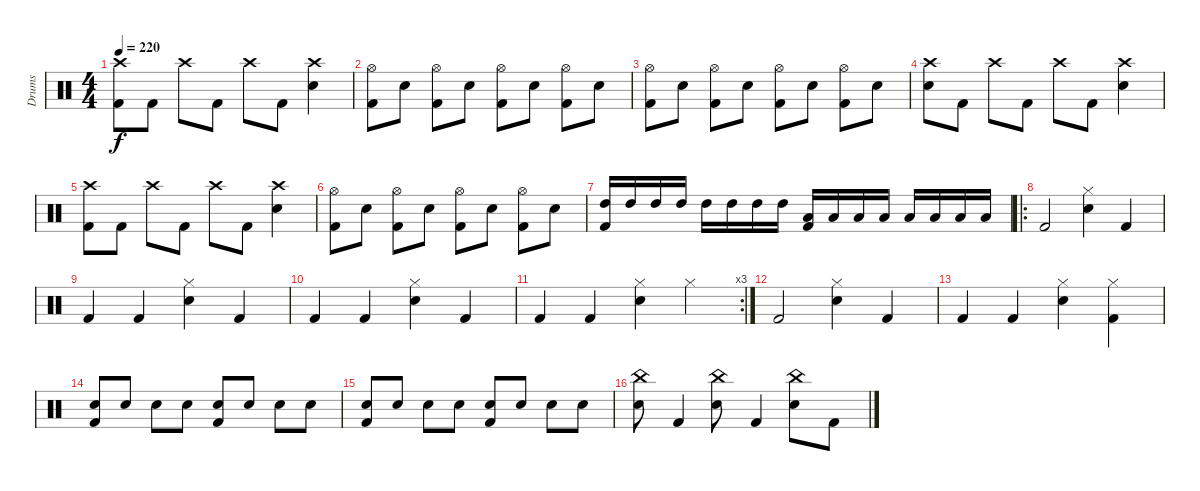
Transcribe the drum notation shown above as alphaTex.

\track ("Drums" "Drums") {instrument percussion}
\staff {score}
\articulation defaults
\ts (4 4)
\tempo 220
\clef neutral
\ks c
("Crash high (hit)" "Kick (hit) 2").8{dy f} "Kick (hit) 2".8 "Crash high (hit)".8 "Kick (hit) 2".8 "Crash high (hit)".8 "Kick (hit) 2".8 ("Crash high (hit)" "Snare (hit) 2").4 |
("Hi-Hat (open)" "Kick (hit) 2").8 "Snare (hit) 2".8 ("Hi-Hat (open)" "Kick (hit) 2").8 "Snare (hit) 2".8 ("Hi-Hat (open)" "Kick (hit) 2").8 "Snare (hit) 2".8 ("Hi-Hat (open)" "Kick (hit) 2").8 "Snare (hit) 2".8 |
("Hi-Hat (open)" "Kick (hit) 2").8 "Snare (hit) 2".8 ("Hi-Hat (open)" "Kick (hit) 2").8 "Snare (hit) 2".8 ("Hi-Hat (open)" "Kick (hit) 2").8 "Snare (hit) 2".8 ("Hi-Hat (open)" "Kick (hit) 2").8 "Snare (hit) 2".8 |
("Crash high (hit)" "Snare (hit) 2").8 "Kick (hit) 2".8 "Crash high (hit)".8 "Kick (hit) 2".8 "Crash high (hit)".8 "Kick (hit) 2".8 ("Crash high (hit)" "Snare (hit) 2").4 |
("Crash high (hit)" "Kick (hit) 2").8 "Kick (hit) 2".8 "Crash high (hit)".8 "Kick (hit) 2".8 "Crash high (hit)".8 "Kick (hit) 2".8 ("Crash high (hit)" "Snare (hit) 2").4 |
("Hi-Hat (open)" "Kick (hit) 2").8 "Snare (hit) 2".8 ("Hi-Hat (open)" "Kick (hit) 2").8 "Snare (hit) 2".8 ("Hi-Hat (open)" "Kick (hit) 2").8 "Snare (hit) 2".8 ("Hi-Hat (open)" "Kick (hit) 2").8 "Snare (hit) 2".8 |
("High Tom (hit)" "Kick (hit) 2").16 "High Tom (hit)".16 "High Tom (hit)".16 "High Tom (hit)".16 "High Tom (hit)".16 "High Tom (hit)".16 "High Tom (hit)".16 "High Tom (hit)".16 ("Low Tom (hit)" "Kick (hit) 2").16 "Low Tom (hit)".16 "Low Tom (hit)".16 "Low Tom (hit)".16 "Low Tom (hit)".16 "Low Tom (hit)".16 "Low Tom (hit)".16 "Low Tom (hit)".16 |
\ro "Kick (hit) 2".2
("Hi-Hat (closed)" "Snare (hit) 2").4 "Kick (hit) 2".4 |
"Kick (hit) 2".4 "Kick (hit) 2".4 ("Hi-Hat (closed)" "Snare (hit) 2").4 "Kick (hit) 2".4 |
"Kick (hit) 2".4 "Kick (hit) 2".4 ("Hi-Hat (closed)" "Snare (hit) 2").4 "Kick (hit) 2".4 |
\rc 3 "Kick (hit) 2".4 "Kick (hit) 2".4
("Hi-Hat (closed)" "Snare (hit) 2").4 "Hi-Hat (closed)".4 |
"Kick (hit) 2".2 ("Hi-Hat (closed)" "Snare (hit) 2").4 "Kick (hit) 2".4 |
"Kick (hit) 2".4 "Kick (hit) 2".4 ("Hi-Hat (closed)" "Snare (hit) 2").4 ("Hi-Hat (closed)" "Kick (hit) 2").4 |
("Snare (hit) 2" "Kick (hit) 2").8 "Snare (hit) 2".8 "Snare (hit) 2".8 "Snare (hit) 2".8 ("Snare (hit) 2" "Kick (hit) 2").8 "Snare (hit) 2".8 "Snare (hit) 2".8 "Snare (hit) 2".8 |
("Snare (hit) 2" "Kick (hit) 2").8 "Snare (hit) 2".8 "Snare (hit) 2".8 "Snare (hit) 2".8 ("Snare (hit) 2" "Kick (hit) 2").8 "Snare (hit) 2".8 "Snare (hit) 2".8 "Snare (hit) 2".8 |
("China (hit)" "Snare (hit) 2").8 "Kick (hit) 2".4 ("China (hit)" "Snare (hit) 2").8 "Kick (hit) 2".4 ("China (hit)" "Snare (hit) 2").8 "Kick (hit) 2".8
